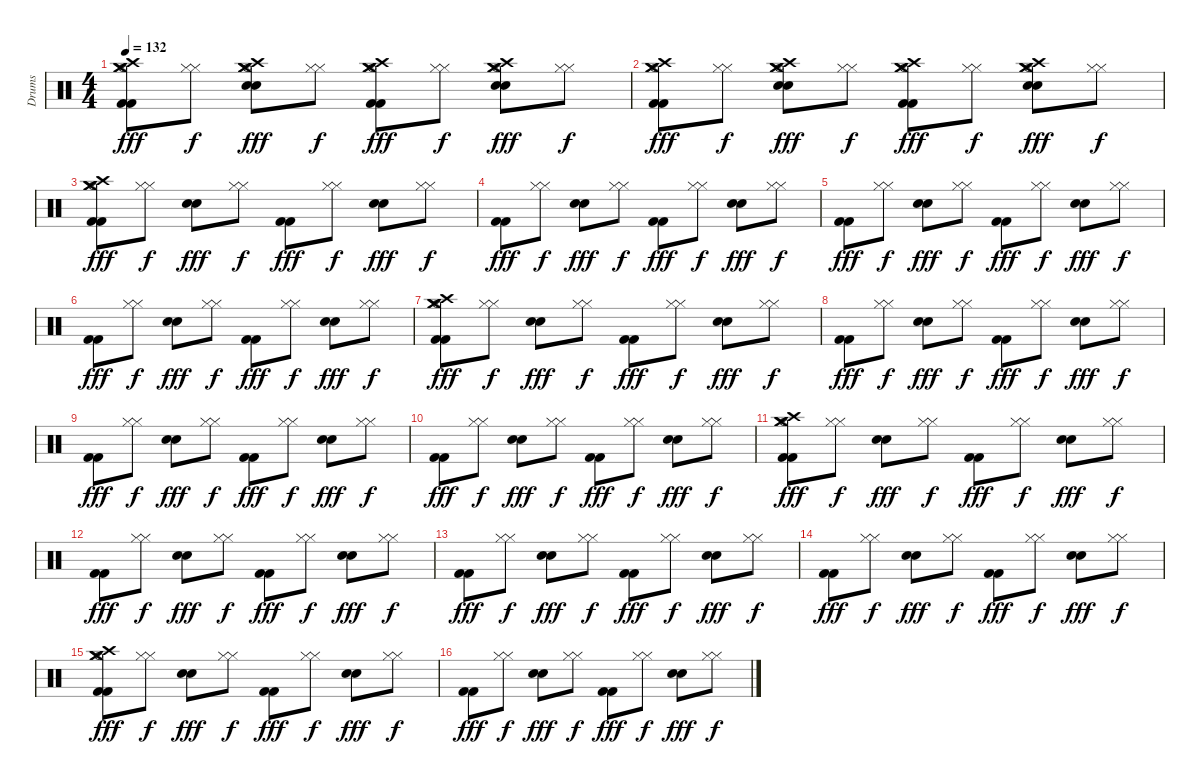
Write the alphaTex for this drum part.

\track ("Drums" "Drums") {instrument percussion}
\staff {score}
\articulation defaults
\ts (4 4)
\tempo 132
\clef neutral
\ks c
("Kick (hit) 2" "Kick (hit) 2" "Crash high (hit)" "Hi-Hat (open)" "Crash medium (hit)" "Crash medium (hit)").8{dy fff} ("Hi-Hat (closed)" "Hi-Hat (closed)").8{dy f} ("Snare (hit) 2" "Snare (hit) 2" "Crash high (hit)" "Hi-Hat (open)" "Crash medium (hit)" "Crash medium (hit)").8{dy fff} ("Hi-Hat (closed)" "Hi-Hat (closed)").8{dy f} ("Kick (hit) 2" "Kick (hit) 2" "Crash high (hit)" "Hi-Hat (open)" "Crash medium (hit)" "Crash medium (hit)").8{dy fff} ("Hi-Hat (closed)" "Hi-Hat (closed)").8{dy f} ("Snare (hit) 2" "Snare (hit) 2" "Crash high (hit)" "Hi-Hat (open)" "Crash medium (hit)" "Crash medium (hit)").8{dy fff} ("Hi-Hat (closed)" "Hi-Hat (closed)").8{dy f} |
("Kick (hit) 2" "Kick (hit) 2" "Crash high (hit)" "Hi-Hat (open)" "Crash medium (hit)" "Crash medium (hit)").8{dy fff} ("Hi-Hat (closed)" "Hi-Hat (closed)").8{dy f} ("Snare (hit) 2" "Snare (hit) 2" "Crash high (hit)" "Hi-Hat (open)" "Crash medium (hit)" "Crash medium (hit)").8{dy fff} ("Hi-Hat (closed)" "Hi-Hat (closed)").8{dy f} ("Kick (hit) 2" "Kick (hit) 2" "Crash high (hit)" "Hi-Hat (open)" "Crash medium (hit)" "Crash medium (hit)").8{dy fff} ("Hi-Hat (closed)" "Hi-Hat (closed)").8{dy f} ("Snare (hit) 2" "Snare (hit) 2" "Crash high (hit)" "Hi-Hat (open)" "Crash medium (hit)" "Crash medium (hit)").8{dy fff} ("Hi-Hat (closed)" "Hi-Hat (closed)").8{dy f} |
("Kick (hit) 2" "Kick (hit) 2" "Crash high (hit)" "Hi-Hat (open)" "Crash medium (hit)" "Crash medium (hit)").8{dy fff} ("Hi-Hat (closed)" "Hi-Hat (closed)").8{dy f} ("Snare (hit) 2" "Snare (hit) 2").8{dy fff} ("Hi-Hat (closed)" "Hi-Hat (closed)").8{dy f} ("Kick (hit) 2" "Kick (hit) 2").8{dy fff} ("Hi-Hat (closed)" "Hi-Hat (closed)").8{dy f} ("Snare (hit) 2" "Snare (hit) 2").8{dy fff} ("Hi-Hat (closed)" "Hi-Hat (closed)").8{dy f} |
("Kick (hit) 2" "Kick (hit) 2").8{dy fff} ("Hi-Hat (closed)" "Hi-Hat (closed)").8{dy f} ("Snare (hit) 2" "Snare (hit) 2").8{dy fff} ("Hi-Hat (closed)" "Hi-Hat (closed)").8{dy f} ("Kick (hit) 2" "Kick (hit) 2").8{dy fff} ("Hi-Hat (closed)" "Hi-Hat (closed)").8{dy f} ("Snare (hit) 2" "Snare (hit) 2").8{dy fff} ("Hi-Hat (closed)" "Hi-Hat (closed)").8{dy f} |
("Kick (hit) 2" "Kick (hit) 2").8{dy fff} ("Hi-Hat (closed)" "Hi-Hat (closed)").8{dy f} ("Snare (hit) 2" "Snare (hit) 2").8{dy fff} ("Hi-Hat (closed)" "Hi-Hat (closed)").8{dy f} ("Kick (hit) 2" "Kick (hit) 2").8{dy fff} ("Hi-Hat (closed)" "Hi-Hat (closed)").8{dy f} ("Snare (hit) 2" "Snare (hit) 2").8{dy fff} ("Hi-Hat (closed)" "Hi-Hat (closed)").8{dy f} |
("Kick (hit) 2" "Kick (hit) 2").8{dy fff} ("Hi-Hat (closed)" "Hi-Hat (closed)").8{dy f} ("Snare (hit) 2" "Snare (hit) 2").8{dy fff} ("Hi-Hat (closed)" "Hi-Hat (closed)").8{dy f} ("Kick (hit) 2" "Kick (hit) 2").8{dy fff} ("Hi-Hat (closed)" "Hi-Hat (closed)").8{dy f} ("Snare (hit) 2" "Snare (hit) 2").8{dy fff} ("Hi-Hat (closed)" "Hi-Hat (closed)").8{dy f} |
("Kick (hit) 2" "Kick (hit) 2" "Crash high (hit)" "Hi-Hat (open)" "Crash medium (hit)" "Crash medium (hit)").8{dy fff} ("Hi-Hat (closed)" "Hi-Hat (closed)").8{dy f} ("Snare (hit) 2" "Snare (hit) 2").8{dy fff} ("Hi-Hat (closed)" "Hi-Hat (closed)").8{dy f} ("Kick (hit) 2" "Kick (hit) 2").8{dy fff} ("Hi-Hat (closed)" "Hi-Hat (closed)").8{dy f} ("Snare (hit) 2" "Snare (hit) 2").8{dy fff} ("Hi-Hat (closed)" "Hi-Hat (closed)").8{dy f} |
("Kick (hit) 2" "Kick (hit) 2").8{dy fff} ("Hi-Hat (closed)" "Hi-Hat (closed)").8{dy f} ("Snare (hit) 2" "Snare (hit) 2").8{dy fff} ("Hi-Hat (closed)" "Hi-Hat (closed)").8{dy f} ("Kick (hit) 2" "Kick (hit) 2").8{dy fff} ("Hi-Hat (closed)" "Hi-Hat (closed)").8{dy f} ("Snare (hit) 2" "Snare (hit) 2").8{dy fff} ("Hi-Hat (closed)" "Hi-Hat (closed)").8{dy f} |
("Kick (hit) 2" "Kick (hit) 2").8{dy fff} ("Hi-Hat (closed)" "Hi-Hat (closed)").8{dy f} ("Snare (hit) 2" "Snare (hit) 2").8{dy fff} ("Hi-Hat (closed)" "Hi-Hat (closed)").8{dy f} ("Kick (hit) 2" "Kick (hit) 2").8{dy fff} ("Hi-Hat (closed)" "Hi-Hat (closed)").8{dy f} ("Snare (hit) 2" "Snare (hit) 2").8{dy fff} ("Hi-Hat (closed)" "Hi-Hat (closed)").8{dy f} |
("Kick (hit) 2" "Kick (hit) 2").8{dy fff} ("Hi-Hat (closed)" "Hi-Hat (closed)").8{dy f} ("Snare (hit) 2" "Snare (hit) 2").8{dy fff} ("Hi-Hat (closed)" "Hi-Hat (closed)").8{dy f} ("Kick (hit) 2" "Kick (hit) 2").8{dy fff} ("Hi-Hat (closed)" "Hi-Hat (closed)").8{dy f} ("Snare (hit) 2" "Snare (hit) 2").8{dy fff} ("Hi-Hat (closed)" "Hi-Hat (closed)").8{dy f} |
("Kick (hit) 2" "Kick (hit) 2" "Crash high (hit)" "Hi-Hat (open)" "Crash medium (hit)" "Crash medium (hit)").8{dy fff} ("Hi-Hat (closed)" "Hi-Hat (closed)").8{dy f} ("Snare (hit) 2" "Snare (hit) 2").8{dy fff} ("Hi-Hat (closed)" "Hi-Hat (closed)").8{dy f} ("Kick (hit) 2" "Kick (hit) 2").8{dy fff} ("Hi-Hat (closed)" "Hi-Hat (closed)").8{dy f} ("Snare (hit) 2" "Snare (hit) 2").8{dy fff} ("Hi-Hat (closed)" "Hi-Hat (closed)").8{dy f} |
("Kick (hit) 2" "Kick (hit) 2").8{dy fff} ("Hi-Hat (closed)" "Hi-Hat (closed)").8{dy f} ("Snare (hit) 2" "Snare (hit) 2").8{dy fff} ("Hi-Hat (closed)" "Hi-Hat (closed)").8{dy f} ("Kick (hit) 2" "Kick (hit) 2").8{dy fff} ("Hi-Hat (closed)" "Hi-Hat (closed)").8{dy f} ("Snare (hit) 2" "Snare (hit) 2").8{dy fff} ("Hi-Hat (closed)" "Hi-Hat (closed)").8{dy f} |
("Kick (hit) 2" "Kick (hit) 2").8{dy fff} ("Hi-Hat (closed)" "Hi-Hat (closed)").8{dy f} ("Snare (hit) 2" "Snare (hit) 2").8{dy fff} ("Hi-Hat (closed)" "Hi-Hat (closed)").8{dy f} ("Kick (hit) 2" "Kick (hit) 2").8{dy fff} ("Hi-Hat (closed)" "Hi-Hat (closed)").8{dy f} ("Snare (hit) 2" "Snare (hit) 2").8{dy fff} ("Hi-Hat (closed)" "Hi-Hat (closed)").8{dy f} |
("Kick (hit) 2" "Kick (hit) 2").8{dy fff} ("Hi-Hat (closed)" "Hi-Hat (closed)").8{dy f} ("Snare (hit) 2" "Snare (hit) 2").8{dy fff} ("Hi-Hat (closed)" "Hi-Hat (closed)").8{dy f} ("Kick (hit) 2" "Kick (hit) 2").8{dy fff} ("Hi-Hat (closed)" "Hi-Hat (closed)").8{dy f} ("Snare (hit) 2" "Snare (hit) 2").8{dy fff} ("Hi-Hat (closed)" "Hi-Hat (closed)").8{dy f} |
("Kick (hit) 2" "Kick (hit) 2" "Crash high (hit)" "Hi-Hat (open)" "Crash medium (hit)" "Crash medium (hit)").8{dy fff} ("Hi-Hat (closed)" "Hi-Hat (closed)").8{dy f} ("Snare (hit) 2" "Snare (hit) 2").8{dy fff} ("Hi-Hat (closed)" "Hi-Hat (closed)").8{dy f} ("Kick (hit) 2" "Kick (hit) 2").8{dy fff} ("Hi-Hat (closed)" "Hi-Hat (closed)").8{dy f} ("Snare (hit) 2" "Snare (hit) 2").8{dy fff} ("Hi-Hat (closed)" "Hi-Hat (closed)").8{dy f} |
("Kick (hit) 2" "Kick (hit) 2").8{dy fff} ("Hi-Hat (closed)" "Hi-Hat (closed)").8{dy f} ("Snare (hit) 2" "Snare (hit) 2").8{dy fff} ("Hi-Hat (closed)" "Hi-Hat (closed)").8{dy f} ("Kick (hit) 2" "Kick (hit) 2").8{dy fff} ("Hi-Hat (closed)" "Hi-Hat (closed)").8{dy f} ("Snare (hit) 2" "Snare (hit) 2").8{dy fff} ("Hi-Hat (closed)" "Hi-Hat (closed)").8{dy f}
